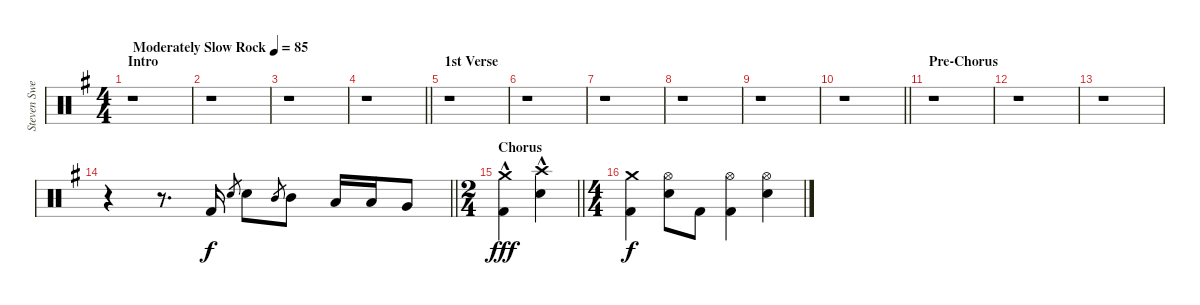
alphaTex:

\track ("Steven Sweet" "Steven Swe") {instrument percussion}
\staff {score}
\articulation defaults
\ts (4 4)
\section ("" "Intro")
\tempo (85 "Moderately Slow Rock")
\clef neutral
\ks g
r.1{dy f} |
r.1 |
r.1 |
\barLineRight lightlight
r.1 |
\section ("" "1st Verse")
r.1 |
r.1 |
r.1 |
r.1 |
r.1 |
\barLineRight lightlight
r.1 |
\section ("" "Pre-Chorus")
r.1 |
r.1 |
r.1 |
\barLineRight lightlight
r.4 r.8{d} "Kick (hit) 2".16 "Snare (hit) 2".8{gr} "Snare (hit) 2".8 "Mid Tom (hit)".8{gr} "Mid Tom (hit)".8 "Low Tom (hit)".16 "Low Tom (hit)".16 "Very Low Tom (hit)".8 |
\ts (2 4)
\section ("" "Chorus")
\barLineRight lightlight
("Crash medium (hit)"{hac} "Kick (hit) 2"{hac}).4{dy fff} ("Crash high (hit)"{hac} "Snare (hit) 2"{hac}).4 |
\ts (4 4)
("Crash medium (hit)" "Kick (hit) 2").4{dy f} ("Hi-Hat (open)" "Snare (hit) 2").8 "Kick (hit) 2".8 ("Hi-Hat (open)" "Kick (hit) 2").4 ("Hi-Hat (open)" "Snare (hit) 2").4
